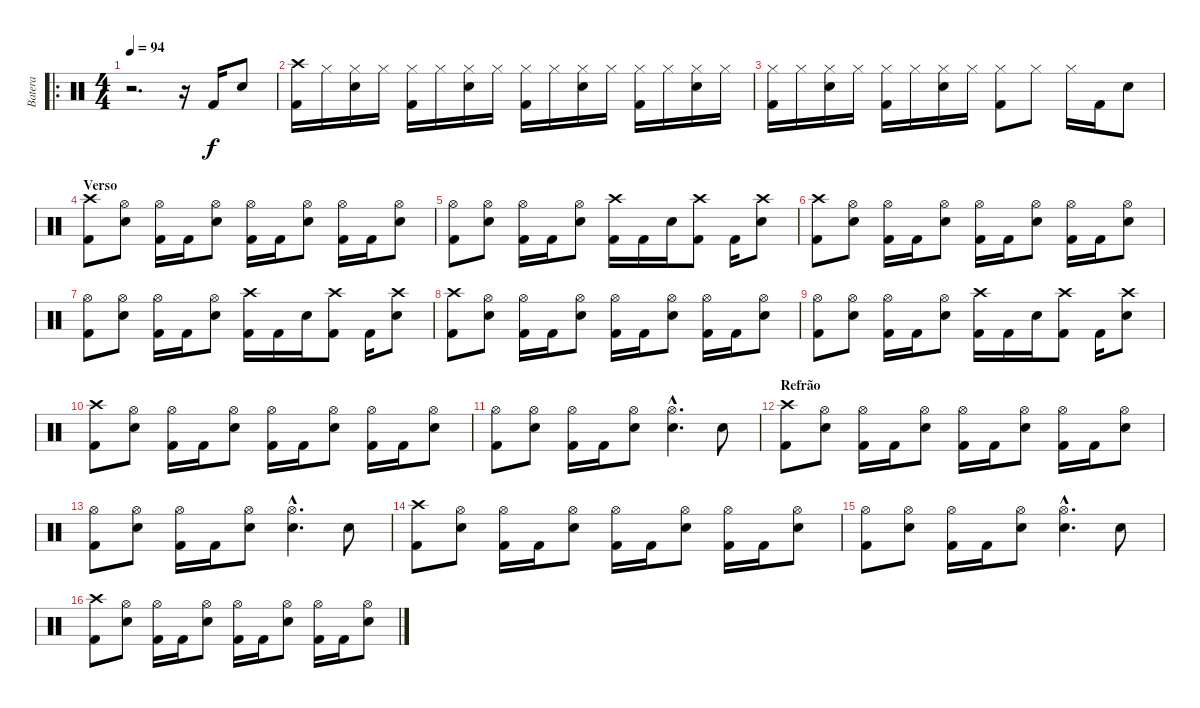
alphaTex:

\track ("Batera" "Batera") {instrument percussion}
\staff {score}
\articulation defaults
\ro
\ts (4 4)
\tempo 94
\clef neutral
\ks c
r.2{d dy f} r.16 "Kick (hit) 2".16 "Snare (hit) 2".8 |
("Crash high (hit)" "Kick (hit) 2").16 "Hi-Hat (closed)".16 ("Hi-Hat (closed)" "Snare (hit) 2").16 "Hi-Hat (closed)".16 ("Hi-Hat (closed)" "Kick (hit) 2").16 "Hi-Hat (closed)".16 ("Hi-Hat (closed)" "Snare (hit) 2").16 "Hi-Hat (closed)".16 ("Hi-Hat (closed)" "Kick (hit) 2").16 "Hi-Hat (closed)".16 ("Hi-Hat (closed)" "Snare (hit) 2").16 "Hi-Hat (closed)".16 ("Hi-Hat (closed)" "Kick (hit) 2").16 "Hi-Hat (closed)".16 ("Hi-Hat (closed)" "Snare (hit) 2").16 "Hi-Hat (closed)".16 |
("Hi-Hat (closed)" "Kick (hit) 2").16 "Hi-Hat (closed)".16 ("Hi-Hat (closed)" "Snare (hit) 2").16 "Hi-Hat (closed)".16 ("Hi-Hat (closed)" "Kick (hit) 2").16 "Hi-Hat (closed)".16 ("Hi-Hat (closed)" "Snare (hit) 2").16 "Hi-Hat (closed)".16 ("Hi-Hat (closed)" "Kick (hit) 2").8 "Hi-Hat (closed)".8 "Hi-Hat (closed)".16 "Kick (hit) 2".16 "Snare (hit) 2".8 |
\section ("" "Verso")
("Crash high (hit)" "Kick (hit) 2").8 ("Hi-Hat (open)" "Snare (hit) 2").8 ("Hi-Hat (open)" "Kick (hit) 2").16 "Kick (hit) 2".16 ("Hi-Hat (open)" "Snare (hit) 2").8 ("Hi-Hat (open)" "Kick (hit) 2").16 "Kick (hit) 2".16 ("Hi-Hat (open)" "Snare (hit) 2").8 ("Hi-Hat (open)" "Kick (hit) 2").16 "Kick (hit) 2".16 ("Hi-Hat (open)" "Snare (hit) 2").8 |
("Hi-Hat (open)" "Kick (hit) 2").8 ("Hi-Hat (open)" "Snare (hit) 2").8 ("Hi-Hat (open)" "Kick (hit) 2").16 "Kick (hit) 2".16 ("Hi-Hat (open)" "Snare (hit) 2").8 ("Crash high (hit)" "Kick (hit) 2").16 "Kick (hit) 2".16 "Snare (hit) 2".16 ("Crash high (hit)" "Kick (hit) 2").8 "Kick (hit) 2".16 ("Crash high (hit)" "Snare (hit) 2").8 |
("Crash high (hit)" "Kick (hit) 2").8 ("Hi-Hat (open)" "Snare (hit) 2").8 ("Hi-Hat (open)" "Kick (hit) 2").16 "Kick (hit) 2".16 ("Hi-Hat (open)" "Snare (hit) 2").8 ("Hi-Hat (open)" "Kick (hit) 2").16 "Kick (hit) 2".16 ("Hi-Hat (open)" "Snare (hit) 2").8 ("Hi-Hat (open)" "Kick (hit) 2").16 "Kick (hit) 2".16 ("Hi-Hat (open)" "Snare (hit) 2").8 |
("Hi-Hat (open)" "Kick (hit) 2").8 ("Hi-Hat (open)" "Snare (hit) 2").8 ("Hi-Hat (open)" "Kick (hit) 2").16 "Kick (hit) 2".16 ("Hi-Hat (open)" "Snare (hit) 2").8 ("Crash high (hit)" "Kick (hit) 2").16 "Kick (hit) 2".16 "Snare (hit) 2".16 ("Crash high (hit)" "Kick (hit) 2").8 "Kick (hit) 2".16 ("Crash high (hit)" "Snare (hit) 2").8 |
("Crash high (hit)" "Kick (hit) 2").8 ("Hi-Hat (open)" "Snare (hit) 2").8 ("Hi-Hat (open)" "Kick (hit) 2").16 "Kick (hit) 2".16 ("Hi-Hat (open)" "Snare (hit) 2").8 ("Hi-Hat (open)" "Kick (hit) 2").16 "Kick (hit) 2".16 ("Hi-Hat (open)" "Snare (hit) 2").8 ("Hi-Hat (open)" "Kick (hit) 2").16 "Kick (hit) 2".16 ("Hi-Hat (open)" "Snare (hit) 2").8 |
("Hi-Hat (open)" "Kick (hit) 2").8 ("Hi-Hat (open)" "Snare (hit) 2").8 ("Hi-Hat (open)" "Kick (hit) 2").16 "Kick (hit) 2".16 ("Hi-Hat (open)" "Snare (hit) 2").8 ("Crash high (hit)" "Kick (hit) 2").16 "Kick (hit) 2".16 "Snare (hit) 2".16 ("Crash high (hit)" "Kick (hit) 2").8 "Kick (hit) 2".16 ("Crash high (hit)" "Snare (hit) 2").8 |
("Crash high (hit)" "Kick (hit) 2").8 ("Hi-Hat (open)" "Snare (hit) 2").8 ("Hi-Hat (open)" "Kick (hit) 2").16 "Kick (hit) 2".16 ("Hi-Hat (open)" "Snare (hit) 2").8 ("Hi-Hat (open)" "Kick (hit) 2").16 "Kick (hit) 2".16 ("Hi-Hat (open)" "Snare (hit) 2").8 ("Hi-Hat (open)" "Kick (hit) 2").16 "Kick (hit) 2".16 ("Hi-Hat (open)" "Snare (hit) 2").8 |
("Hi-Hat (open)" "Kick (hit) 2").8 ("Hi-Hat (open)" "Snare (hit) 2").8 ("Hi-Hat (open)" "Kick (hit) 2").16 "Kick (hit) 2".16 ("Hi-Hat (open)" "Snare (hit) 2").8 ("Hi-Hat (open)"{hac} "Snare (hit) 2"{hac}).4{d} "Snare (hit) 2".8 |
\section ("" "Refrão")
("Crash high (hit)" "Kick (hit) 2").8 ("Hi-Hat (open)" "Snare (hit) 2").8 ("Hi-Hat (open)" "Kick (hit) 2").16 "Kick (hit) 2".16 ("Hi-Hat (open)" "Snare (hit) 2").8 ("Hi-Hat (open)" "Kick (hit) 2").16 "Kick (hit) 2".16 ("Hi-Hat (open)" "Snare (hit) 2").8 ("Hi-Hat (open)" "Kick (hit) 2").16 "Kick (hit) 2".16 ("Hi-Hat (open)" "Snare (hit) 2").8 |
("Hi-Hat (open)" "Kick (hit) 2").8 ("Hi-Hat (open)" "Snare (hit) 2").8 ("Hi-Hat (open)" "Kick (hit) 2").16 "Kick (hit) 2".16 ("Hi-Hat (open)" "Snare (hit) 2").8 ("Hi-Hat (open)"{hac} "Snare (hit) 2"{hac}).4{d} "Snare (hit) 2".8 |
("Crash high (hit)" "Kick (hit) 2").8 ("Hi-Hat (open)" "Snare (hit) 2").8 ("Hi-Hat (open)" "Kick (hit) 2").16 "Kick (hit) 2".16 ("Hi-Hat (open)" "Snare (hit) 2").8 ("Hi-Hat (open)" "Kick (hit) 2").16 "Kick (hit) 2".16 ("Hi-Hat (open)" "Snare (hit) 2").8 ("Hi-Hat (open)" "Kick (hit) 2").16 "Kick (hit) 2".16 ("Hi-Hat (open)" "Snare (hit) 2").8 |
("Hi-Hat (open)" "Kick (hit) 2").8 ("Hi-Hat (open)" "Snare (hit) 2").8 ("Hi-Hat (open)" "Kick (hit) 2").16 "Kick (hit) 2".16 ("Hi-Hat (open)" "Snare (hit) 2").8 ("Hi-Hat (open)"{hac} "Snare (hit) 2"{hac}).4{d} "Snare (hit) 2".8 |
("Crash high (hit)" "Kick (hit) 2").8 ("Hi-Hat (open)" "Snare (hit) 2").8 ("Hi-Hat (open)" "Kick (hit) 2").16 "Kick (hit) 2".16 ("Hi-Hat (open)" "Snare (hit) 2").8 ("Hi-Hat (open)" "Kick (hit) 2").16 "Kick (hit) 2".16 ("Hi-Hat (open)" "Snare (hit) 2").8 ("Hi-Hat (open)" "Kick (hit) 2").16 "Kick (hit) 2".16 ("Hi-Hat (open)" "Snare (hit) 2").8
